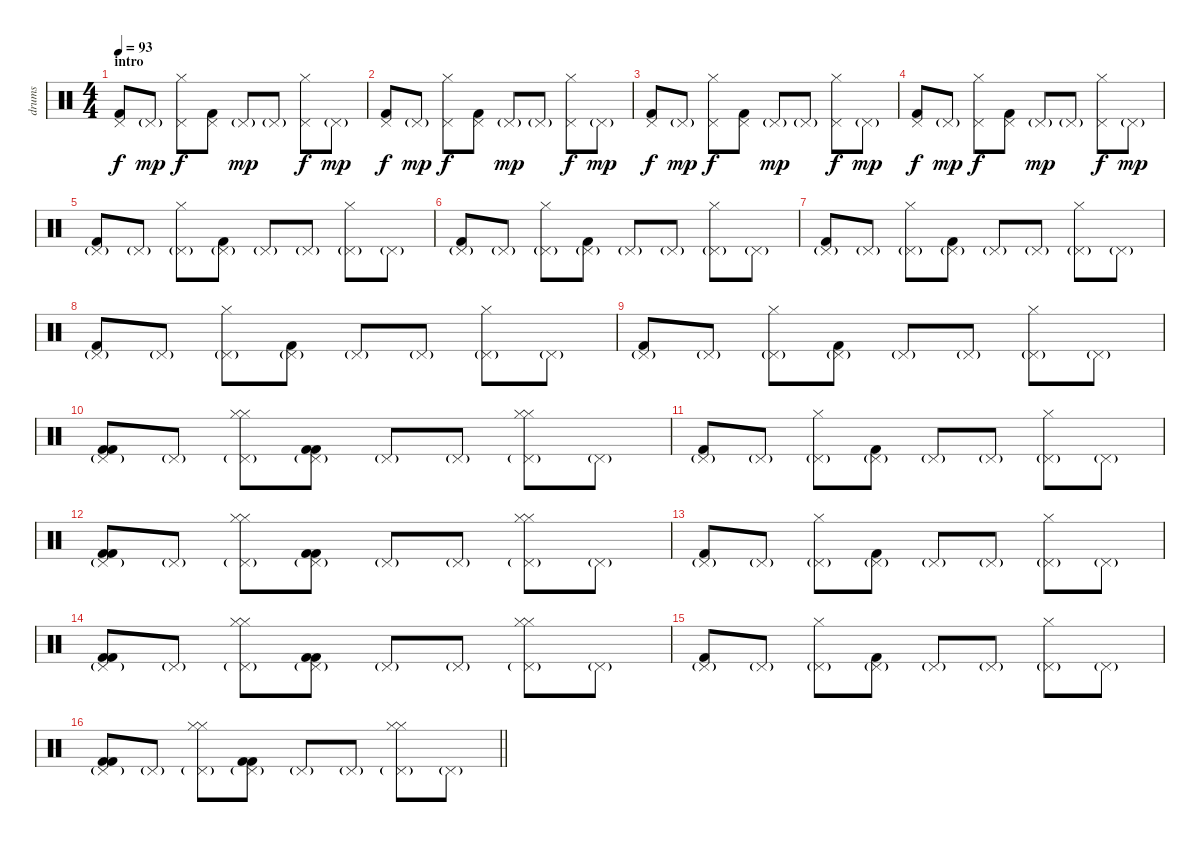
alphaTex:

\track ("drums" "drums") {instrument percussion}
\staff {score}
\articulation defaults
\ts (4 4)
\section ("" "intro")
\tempo 93
\clef neutral
\ks c
("Kick (hit) 2" "Pedal Hi-Hat (hit)").8{dy f} "Pedal Hi-Hat (hit)"{g}.8{dy mp} ("Hi-Hat (closed)" "Pedal Hi-Hat (hit)").8{dy f} ("Kick (hit) 2" "Pedal Hi-Hat (hit)").8 "Pedal Hi-Hat (hit)"{g}.8{dy mp} "Pedal Hi-Hat (hit)"{g}.8 ("Hi-Hat (closed)" "Pedal Hi-Hat (hit)").8{dy f} "Pedal Hi-Hat (hit)"{g}.8{dy mp} |
("Kick (hit) 2" "Pedal Hi-Hat (hit)").8{dy f} "Pedal Hi-Hat (hit)"{g}.8{dy mp} ("Hi-Hat (closed)" "Pedal Hi-Hat (hit)").8{dy f} ("Kick (hit) 2" "Pedal Hi-Hat (hit)").8 "Pedal Hi-Hat (hit)"{g}.8{dy mp} "Pedal Hi-Hat (hit)"{g}.8 ("Hi-Hat (closed)" "Pedal Hi-Hat (hit)").8{dy f} "Pedal Hi-Hat (hit)"{g}.8{dy mp} |
("Kick (hit) 2" "Pedal Hi-Hat (hit)").8{dy f} "Pedal Hi-Hat (hit)"{g}.8{dy mp} ("Hi-Hat (closed)" "Pedal Hi-Hat (hit)").8{dy f} ("Kick (hit) 2" "Pedal Hi-Hat (hit)").8 "Pedal Hi-Hat (hit)"{g}.8{dy mp} "Pedal Hi-Hat (hit)"{g}.8 ("Hi-Hat (closed)" "Pedal Hi-Hat (hit)").8{dy f} "Pedal Hi-Hat (hit)"{g}.8{dy mp} |
("Kick (hit) 2" "Pedal Hi-Hat (hit)").8{dy f} "Pedal Hi-Hat (hit)"{g}.8{dy mp} ("Hi-Hat (closed)" "Pedal Hi-Hat (hit)").8{dy f} ("Kick (hit) 2" "Pedal Hi-Hat (hit)").8 "Pedal Hi-Hat (hit)"{g}.8{dy mp} "Pedal Hi-Hat (hit)"{g}.8 ("Hi-Hat (closed)" "Pedal Hi-Hat (hit)").8{dy f} "Pedal Hi-Hat (hit)"{g}.8{dy mp} |
("Kick (hit) 2" "Pedal Hi-Hat (hit)"{g}).8 "Pedal Hi-Hat (hit)"{g}.8 ("Hi-Hat (closed)" "Pedal Hi-Hat (hit)"{g}).8 ("Kick (hit) 2" "Pedal Hi-Hat (hit)"{g}).8 "Pedal Hi-Hat (hit)"{g}.8 "Pedal Hi-Hat (hit)"{g}.8 ("Hi-Hat (closed)" "Pedal Hi-Hat (hit)"{g}).8 "Pedal Hi-Hat (hit)"{g}.8 |
("Kick (hit) 2" "Pedal Hi-Hat (hit)"{g}).8 "Pedal Hi-Hat (hit)"{g}.8 ("Hi-Hat (closed)" "Pedal Hi-Hat (hit)"{g}).8 ("Kick (hit) 2" "Pedal Hi-Hat (hit)"{g}).8 "Pedal Hi-Hat (hit)"{g}.8 "Pedal Hi-Hat (hit)"{g}.8 ("Hi-Hat (closed)" "Pedal Hi-Hat (hit)"{g}).8 "Pedal Hi-Hat (hit)"{g}.8 |
("Kick (hit) 2" "Pedal Hi-Hat (hit)"{g}).8 "Pedal Hi-Hat (hit)"{g}.8 ("Hi-Hat (closed)" "Pedal Hi-Hat (hit)"{g}).8 ("Kick (hit) 2" "Pedal Hi-Hat (hit)"{g}).8 "Pedal Hi-Hat (hit)"{g}.8 "Pedal Hi-Hat (hit)"{g}.8 ("Hi-Hat (closed)" "Pedal Hi-Hat (hit)"{g}).8 "Pedal Hi-Hat (hit)"{g}.8 |
("Kick (hit) 2" "Pedal Hi-Hat (hit)"{g}).8 "Pedal Hi-Hat (hit)"{g}.8 ("Hi-Hat (closed)" "Pedal Hi-Hat (hit)"{g}).8 ("Kick (hit) 2" "Pedal Hi-Hat (hit)"{g}).8 "Pedal Hi-Hat (hit)"{g}.8 "Pedal Hi-Hat (hit)"{g}.8 ("Hi-Hat (closed)" "Pedal Hi-Hat (hit)"{g}).8 "Pedal Hi-Hat (hit)"{g}.8 |
("Kick (hit) 2" "Pedal Hi-Hat (hit)"{g}).8 "Pedal Hi-Hat (hit)"{g}.8 ("Hi-Hat (closed)" "Pedal Hi-Hat (hit)"{g}).8 ("Kick (hit) 2" "Pedal Hi-Hat (hit)"{g}).8 "Pedal Hi-Hat (hit)"{g}.8 "Pedal Hi-Hat (hit)"{g}.8 ("Hi-Hat (closed)" "Pedal Hi-Hat (hit)"{g}).8 "Pedal Hi-Hat (hit)"{g}.8 |
("Kick (hit) 2" "Kick (hit) 2" "Pedal Hi-Hat (hit)"{g}).8 "Pedal Hi-Hat (hit)"{g}.8 ("Hi-Hat (closed)" "Hi-Hat (closed)" "Pedal Hi-Hat (hit)"{g}).8 ("Kick (hit) 2" "Kick (hit) 2" "Pedal Hi-Hat (hit)"{g}).8 "Pedal Hi-Hat (hit)"{g}.8 "Pedal Hi-Hat (hit)"{g}.8 ("Hi-Hat (closed)" "Hi-Hat (closed)" "Pedal Hi-Hat (hit)"{g}).8 "Pedal Hi-Hat (hit)"{g}.8 |
("Kick (hit) 2" "Pedal Hi-Hat (hit)"{g}).8 "Pedal Hi-Hat (hit)"{g}.8 ("Hi-Hat (closed)" "Pedal Hi-Hat (hit)"{g}).8 ("Kick (hit) 2" "Pedal Hi-Hat (hit)"{g}).8 "Pedal Hi-Hat (hit)"{g}.8 "Pedal Hi-Hat (hit)"{g}.8 ("Hi-Hat (closed)" "Pedal Hi-Hat (hit)"{g}).8 "Pedal Hi-Hat (hit)"{g}.8 |
("Kick (hit) 2" "Kick (hit) 2" "Pedal Hi-Hat (hit)"{g}).8 "Pedal Hi-Hat (hit)"{g}.8 ("Hi-Hat (closed)" "Hi-Hat (closed)" "Pedal Hi-Hat (hit)"{g}).8 ("Kick (hit) 2" "Kick (hit) 2" "Pedal Hi-Hat (hit)"{g}).8 "Pedal Hi-Hat (hit)"{g}.8 "Pedal Hi-Hat (hit)"{g}.8 ("Hi-Hat (closed)" "Hi-Hat (closed)" "Pedal Hi-Hat (hit)"{g}).8 "Pedal Hi-Hat (hit)"{g}.8 |
("Kick (hit) 2" "Pedal Hi-Hat (hit)"{g}).8 "Pedal Hi-Hat (hit)"{g}.8 ("Hi-Hat (closed)" "Pedal Hi-Hat (hit)"{g}).8 ("Kick (hit) 2" "Pedal Hi-Hat (hit)"{g}).8 "Pedal Hi-Hat (hit)"{g}.8 "Pedal Hi-Hat (hit)"{g}.8 ("Hi-Hat (closed)" "Pedal Hi-Hat (hit)"{g}).8 "Pedal Hi-Hat (hit)"{g}.8 |
("Kick (hit) 2" "Kick (hit) 2" "Pedal Hi-Hat (hit)"{g}).8 "Pedal Hi-Hat (hit)"{g}.8 ("Hi-Hat (closed)" "Hi-Hat (closed)" "Pedal Hi-Hat (hit)"{g}).8 ("Kick (hit) 2" "Kick (hit) 2" "Pedal Hi-Hat (hit)"{g}).8 "Pedal Hi-Hat (hit)"{g}.8 "Pedal Hi-Hat (hit)"{g}.8 ("Hi-Hat (closed)" "Hi-Hat (closed)" "Pedal Hi-Hat (hit)"{g}).8 "Pedal Hi-Hat (hit)"{g}.8 |
("Kick (hit) 2" "Pedal Hi-Hat (hit)"{g}).8 "Pedal Hi-Hat (hit)"{g}.8 ("Hi-Hat (closed)" "Pedal Hi-Hat (hit)"{g}).8 ("Kick (hit) 2" "Pedal Hi-Hat (hit)"{g}).8 "Pedal Hi-Hat (hit)"{g}.8 "Pedal Hi-Hat (hit)"{g}.8 ("Hi-Hat (closed)" "Pedal Hi-Hat (hit)"{g}).8 "Pedal Hi-Hat (hit)"{g}.8 |
\barLineRight lightlight
("Kick (hit) 2" "Kick (hit) 2" "Pedal Hi-Hat (hit)"{g}).8 "Pedal Hi-Hat (hit)"{g}.8 ("Hi-Hat (closed)" "Hi-Hat (closed)" "Pedal Hi-Hat (hit)"{g}).8 ("Kick (hit) 2" "Kick (hit) 2" "Pedal Hi-Hat (hit)"{g}).8 "Pedal Hi-Hat (hit)"{g}.8 "Pedal Hi-Hat (hit)"{g}.8 ("Hi-Hat (closed)" "Hi-Hat (closed)" "Pedal Hi-Hat (hit)"{g}).8 "Pedal Hi-Hat (hit)"{g}.8
